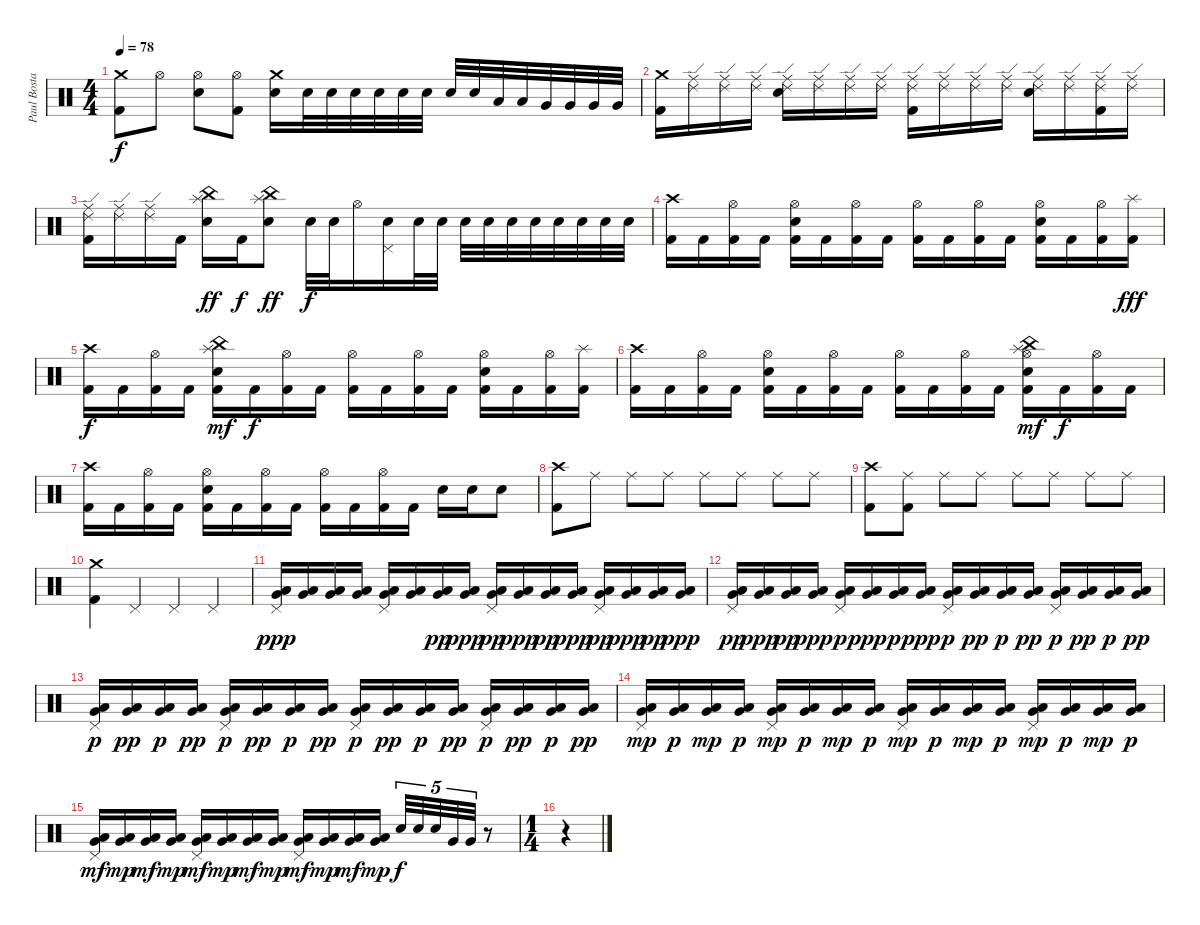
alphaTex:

\track ("Paul Bostaph" "Paul Bosta") {instrument percussion}
\staff {score}
\articulation defaults
\ts (4 4)
\tempo 78
\clef neutral
\ks c
("Crash medium (hit)" "Kick (hit) 2").8{dy f} "Hi-Hat (open)".8 ("Hi-Hat (open)" "Electric Snare (hit)").8 ("Hi-Hat (open)" "Kick (hit) 2").8 ("Crash medium (hit)" "Electric Snare (hit)").16 "Electric Snare (hit)".32 "Electric Snare (hit)".32 "Electric Snare (hit)".32 "Electric Snare (hit)".32 "Electric Snare (hit)".32 "Electric Snare (hit)".32 "Electric Snare (hit)".32 "Electric Snare (hit)".32 "Low Tom (hit)".32 "Low Tom (hit)".32 "Very Low Tom (hit)".32 "Very Low Tom (hit)".32 "Very Low Tom (hit)".32 "Very Low Tom (hit)".32 |
("Kick (hit) 2" "Crash medium (hit)").16 ("Ride (edge) 2" "Ride (middle)").16 ("Ride (edge) 2" "Ride (middle)").16 ("Ride (edge) 2" "Ride (middle)").16 ("Ride (edge) 2" "Ride (middle)" "Electric Snare (hit)").16 ("Ride (edge) 2" "Ride (middle)").16 ("Ride (edge) 2" "Ride (middle)").16 ("Ride (edge) 2" "Ride (middle)").16 ("Ride (edge) 2" "Ride (middle)" "Kick (hit) 2").16 ("Ride (edge) 2" "Ride (middle)").16 ("Ride (edge) 2" "Ride (middle)").16 ("Ride (edge) 2" "Ride (middle)").16 ("Ride (edge) 2" "Ride (middle)" "Electric Snare (hit)").16 ("Ride (edge) 2" "Ride (middle)").16 ("Ride (edge) 2" "Ride (middle)" "Kick (hit) 2").16 ("Ride (edge) 2" "Ride (middle)").16 |
("Ride (edge) 2" "Ride (middle)" "Kick (hit) 2").16 ("Ride (edge) 2" "Ride (middle)").16 ("Ride (edge) 2" "Ride (middle)").16 "Kick (hit) 2".16 ("China (hit)" "Splash (hit)" "Electric Snare (hit)").16{dy ff} "Kick (hit) 2".16{dy f} ("China (hit)" "Splash (hit)" "Electric Snare (hit)").8{dy ff} "Electric Snare (hit)".32{dy f} "Electric Snare (hit)".32 "Hi-Hat (open)".16 ("Pedal Hi-Hat (hit)" "Electric Snare (hit)").16 "Electric Snare (hit)".32 "Electric Snare (hit)".32 "Electric Snare (hit)".32 "Electric Snare (hit)".32 "Electric Snare (hit)".32 "Electric Snare (hit)".32 "Electric Snare (hit)".32 "Electric Snare (hit)".32 "Electric Snare (hit)".32 "Electric Snare (hit)".32 |
("Crash high (hit)" "Kick (hit) 2").16 "Kick (hit) 2".16 ("Hi-Hat (open)" "Kick (hit) 2").16 "Kick (hit) 2".16 ("Hi-Hat (open)" "Kick (hit) 2" "Electric Snare (hit)").16 "Kick (hit) 2".16 ("Hi-Hat (open)" "Kick (hit) 2").16 "Kick (hit) 2".16 ("Hi-Hat (open)" "Kick (hit) 2").16 "Kick (hit) 2".16 ("Hi-Hat (open)" "Kick (hit) 2").16 "Kick (hit) 2".16 ("Hi-Hat (open)" "Kick (hit) 2" "Electric Snare (hit)").16 "Kick (hit) 2".16 ("Hi-Hat (open)" "Kick (hit) 2").16 ("Splash (hit)" "Kick (hit) 2").16{dy fff} |
("Crash high (hit)" "Kick (hit) 2").16{dy f} "Kick (hit) 2".16 ("Hi-Hat (open)" "Kick (hit) 2").16 "Kick (hit) 2".16 ("Kick (hit) 2" "Electric Snare (hit)" "Splash (hit)" "China (hit)").16{dy mf} "Kick (hit) 2".16{dy f} ("Hi-Hat (open)" "Kick (hit) 2").16 "Kick (hit) 2".16 ("Hi-Hat (open)" "Kick (hit) 2").16 "Kick (hit) 2".16 ("Hi-Hat (open)" "Kick (hit) 2").16 "Kick (hit) 2".16 ("Hi-Hat (open)" "Kick (hit) 2" "Electric Snare (hit)").16 "Kick (hit) 2".16 ("Hi-Hat (open)" "Kick (hit) 2").16 ("Splash (hit)" "Kick (hit) 2").16 |
("Crash high (hit)" "Kick (hit) 2").16 "Kick (hit) 2".16 ("Hi-Hat (open)" "Kick (hit) 2").16 "Kick (hit) 2".16 ("Hi-Hat (open)" "Kick (hit) 2" "Electric Snare (hit)").16 "Kick (hit) 2".16 ("Hi-Hat (open)" "Kick (hit) 2").16 "Kick (hit) 2".16 ("Hi-Hat (open)" "Kick (hit) 2").16 "Kick (hit) 2".16 ("Hi-Hat (open)" "Kick (hit) 2").16 "Kick (hit) 2".16 ("Hi-Hat (open)" "Kick (hit) 2" "Electric Snare (hit)" "Splash (hit)" "China (hit)").16{dy mf} "Kick (hit) 2".16{dy f} ("Hi-Hat (open)" "Kick (hit) 2").16 "Kick (hit) 2".16 |
("Crash high (hit)" "Kick (hit) 2").16 "Kick (hit) 2".16 ("Hi-Hat (open)" "Kick (hit) 2").16 "Kick (hit) 2".16 ("Hi-Hat (open)" "Kick (hit) 2" "Electric Snare (hit)").16 "Kick (hit) 2".16 ("Hi-Hat (open)" "Kick (hit) 2").16 "Kick (hit) 2".16 ("Hi-Hat (open)" "Kick (hit) 2").16 "Kick (hit) 2".16 ("Hi-Hat (open)" "Kick (hit) 2").16 "Kick (hit) 2".16 "Electric Snare (hit)".16 "Electric Snare (hit)".16 "Electric Snare (hit)".8 |
("Crash high (hit)" "Kick (hit) 2").8 "Ride (middle)".8 "Ride (middle)".8 "Ride (middle)".8 "Ride (middle)".8 "Ride (middle)".8 "Ride (middle)".8 "Ride (middle)".8 |
("Crash high (hit)" "Kick (hit) 2").8 ("Ride (middle)" "Kick (hit) 2").8 "Ride (middle)".8 "Ride (middle)".8 "Ride (middle)".8 "Ride (middle)".8 "Ride (middle)".8 "Ride (middle)".8 |
("Crash medium (hit)" "Kick (hit) 2").4 "Pedal Hi-Hat (hit)".4 "Pedal Hi-Hat (hit)".4 "Pedal Hi-Hat (hit)".4 |
("Pedal Hi-Hat (hit)" "Low Floor Tom (hit)" "Very Low Tom (hit)").16{dy ppp} ("Low Floor Tom (hit)" "Very Low Tom (hit)").16 ("Low Floor Tom (hit)" "Very Low Tom (hit)").16 ("Low Floor Tom (hit)" "Very Low Tom (hit)").16 ("Pedal Hi-Hat (hit)" "Low Floor Tom (hit)" "Very Low Tom (hit)").16 ("Low Floor Tom (hit)" "Very Low Tom (hit)").16 ("Low Floor Tom (hit)" "Very Low Tom (hit)").16{dy pp} ("Low Floor Tom (hit)" "Very Low Tom (hit)").16{dy ppp} ("Pedal Hi-Hat (hit)" "Low Floor Tom (hit)" "Very Low Tom (hit)").16{dy pp} ("Low Floor Tom (hit)" "Very Low Tom (hit)").16{dy ppp} ("Low Floor Tom (hit)" "Very Low Tom (hit)").16{dy pp} ("Low Floor Tom (hit)" "Very Low Tom (hit)").16{dy ppp} ("Pedal Hi-Hat (hit)" "Low Floor Tom (hit)" "Very Low Tom (hit)").16{dy pp} ("Low Floor Tom (hit)" "Very Low Tom (hit)").16{dy ppp} ("Low Floor Tom (hit)" "Very Low Tom (hit)").16{dy pp} ("Low Floor Tom (hit)" "Very Low Tom (hit)").16{dy ppp} |
("Pedal Hi-Hat (hit)" "Low Floor Tom (hit)" "Very Low Tom (hit)").16{dy pp} ("Low Floor Tom (hit)" "Very Low Tom (hit)").16{dy ppp} ("Low Floor Tom (hit)" "Very Low Tom (hit)").16{dy pp} ("Low Floor Tom (hit)" "Very Low Tom (hit)").16{dy ppp} ("Pedal Hi-Hat (hit)" "Low Floor Tom (hit)" "Very Low Tom (hit)").16{dy p} ("Low Floor Tom (hit)" "Very Low Tom (hit)").16{dy ppp} ("Low Floor Tom (hit)" "Very Low Tom (hit)").16{dy p} ("Low Floor Tom (hit)" "Very Low Tom (hit)").16{dy ppp} ("Pedal Hi-Hat (hit)" "Low Floor Tom (hit)" "Very Low Tom (hit)").16{dy p} ("Low Floor Tom (hit)" "Very Low Tom (hit)").16{dy pp} ("Low Floor Tom (hit)" "Very Low Tom (hit)").16{dy p} ("Low Floor Tom (hit)" "Very Low Tom (hit)").16{dy pp} ("Pedal Hi-Hat (hit)" "Low Floor Tom (hit)" "Very Low Tom (hit)").16{dy p} ("Low Floor Tom (hit)" "Very Low Tom (hit)").16{dy pp} ("Low Floor Tom (hit)" "Very Low Tom (hit)").16{dy p} ("Low Floor Tom (hit)" "Very Low Tom (hit)").16{dy pp} |
("Pedal Hi-Hat (hit)" "Low Floor Tom (hit)" "Very Low Tom (hit)").16{dy p} ("Low Floor Tom (hit)" "Very Low Tom (hit)").16{dy pp} ("Low Floor Tom (hit)" "Very Low Tom (hit)").16{dy p} ("Low Floor Tom (hit)" "Very Low Tom (hit)").16{dy pp} ("Pedal Hi-Hat (hit)" "Low Floor Tom (hit)" "Very Low Tom (hit)").16{dy p} ("Low Floor Tom (hit)" "Very Low Tom (hit)").16{dy pp} ("Low Floor Tom (hit)" "Very Low Tom (hit)").16{dy p} ("Low Floor Tom (hit)" "Very Low Tom (hit)").16{dy pp} ("Pedal Hi-Hat (hit)" "Low Floor Tom (hit)" "Very Low Tom (hit)").16{dy p} ("Low Floor Tom (hit)" "Very Low Tom (hit)").16{dy pp} ("Low Floor Tom (hit)" "Very Low Tom (hit)").16{dy p} ("Low Floor Tom (hit)" "Very Low Tom (hit)").16{dy pp} ("Pedal Hi-Hat (hit)" "Low Floor Tom (hit)" "Very Low Tom (hit)").16{dy p} ("Low Floor Tom (hit)" "Very Low Tom (hit)").16{dy pp} ("Low Floor Tom (hit)" "Very Low Tom (hit)").16{dy p} ("Low Floor Tom (hit)" "Very Low Tom (hit)").16{dy pp} |
("Pedal Hi-Hat (hit)" "Low Floor Tom (hit)" "Very Low Tom (hit)").16{dy mp} ("Low Floor Tom (hit)" "Very Low Tom (hit)").16{dy p} ("Low Floor Tom (hit)" "Very Low Tom (hit)").16{dy mp} ("Low Floor Tom (hit)" "Very Low Tom (hit)").16{dy p} ("Pedal Hi-Hat (hit)" "Low Floor Tom (hit)" "Very Low Tom (hit)").16{dy mp} ("Low Floor Tom (hit)" "Very Low Tom (hit)").16{dy p} ("Low Floor Tom (hit)" "Very Low Tom (hit)").16{dy mp} ("Low Floor Tom (hit)" "Very Low Tom (hit)").16{dy p} ("Pedal Hi-Hat (hit)" "Low Floor Tom (hit)" "Very Low Tom (hit)").16{dy mp} ("Low Floor Tom (hit)" "Very Low Tom (hit)").16{dy p} ("Low Floor Tom (hit)" "Very Low Tom (hit)").16{dy mp} ("Low Floor Tom (hit)" "Very Low Tom (hit)").16{dy p} ("Pedal Hi-Hat (hit)" "Low Floor Tom (hit)" "Very Low Tom (hit)").16{dy mp} ("Low Floor Tom (hit)" "Very Low Tom (hit)").16{dy p} ("Low Floor Tom (hit)" "Very Low Tom (hit)").16{dy mp} ("Low Floor Tom (hit)" "Very Low Tom (hit)").16{dy p} |
("Pedal Hi-Hat (hit)" "Low Floor Tom (hit)" "Very Low Tom (hit)").16{dy mf} ("Low Floor Tom (hit)" "Very Low Tom (hit)").16{dy mp} ("Low Floor Tom (hit)" "Very Low Tom (hit)").16{dy mf} ("Low Floor Tom (hit)" "Very Low Tom (hit)").16{dy mp} ("Pedal Hi-Hat (hit)" "Low Floor Tom (hit)" "Very Low Tom (hit)").16{dy mf} ("Low Floor Tom (hit)" "Very Low Tom (hit)").16{dy mp} ("Low Floor Tom (hit)" "Very Low Tom (hit)").16{dy mf} ("Low Floor Tom (hit)" "Very Low Tom (hit)").16{dy mp} ("Pedal Hi-Hat (hit)" "Low Floor Tom (hit)" "Very Low Tom (hit)").16{dy mf} ("Low Floor Tom (hit)" "Very Low Tom (hit)").16{dy mp} ("Low Floor Tom (hit)" "Very Low Tom (hit)").16{dy mf} ("Low Floor Tom (hit)" "Very Low Tom (hit)").16{dy mp} "Electric Snare (hit)".32{tu (5 4) dy f} "Electric Snare (hit)".32{tu (5 4)} "Electric Snare (hit)".32{tu (5 4)} "Very Low Tom (hit)".32{tu (5 4)} "Very Low Tom (hit)".32{tu (5 4)} r.8 |
\ts (1 4)
r.4
